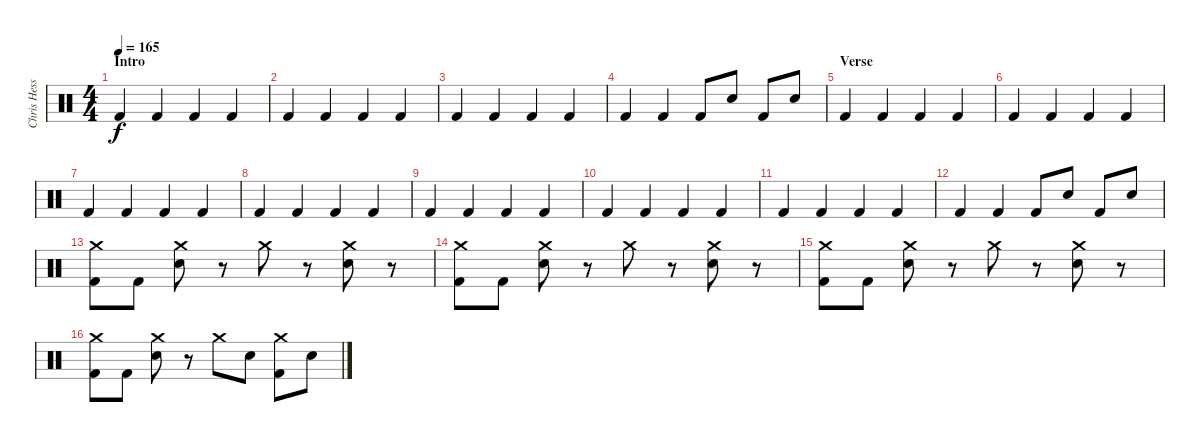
\track ("Chris Hesse" "Chris Hess") {instrument percussion}
\staff {score}
\articulation defaults
\ts (4 4)
\section ("" "Intro")
\tempo 165
\clef neutral
\ks c "Kick (hit) 2".4{dy f} "Kick (hit) 2".4 "Kick (hit) 2".4 "Kick (hit) 2".4
|
"Kick (hit) 2".4 "Kick (hit) 2".4 "Kick (hit) 2".4 "Kick (hit) 2".4 |
"Kick (hit) 2".4 "Kick (hit) 2".4 "Kick (hit) 2".4 "Kick (hit) 2".4 |
"Kick (hit) 2".4 "Kick (hit) 2".4 "Kick (hit) 2".8 "Snare (hit) 2".8 "Kick (hit) 2".8 "Snare (hit) 2".8 |
\section ("" "Verse")
"Kick (hit) 2".4 "Kick (hit) 2".4 "Kick (hit) 2".4 "Kick (hit) 2".4 |
"Kick (hit) 2".4 "Kick (hit) 2".4 "Kick (hit) 2".4 "Kick (hit) 2".4 |
"Kick (hit) 2".4 "Kick (hit) 2".4 "Kick (hit) 2".4 "Kick (hit) 2".4 |
"Kick (hit) 2".4 "Kick (hit) 2".4 "Kick (hit) 2".4 "Kick (hit) 2".4 |
"Kick (hit) 2".4 "Kick (hit) 2".4 "Kick (hit) 2".4 "Kick (hit) 2".4 |
"Kick (hit) 2".4 "Kick (hit) 2".4 "Kick (hit) 2".4 "Kick (hit) 2".4 |
"Kick (hit) 2".4 "Kick (hit) 2".4 "Kick (hit) 2".4 "Kick (hit) 2".4 |
"Kick (hit) 2".4 "Kick (hit) 2".4 "Kick (hit) 2".8 "Snare (hit) 2".8 "Kick (hit) 2".8 "Snare (hit) 2".8 |
("Crash medium (hit)" "Kick (hit) 2").8 "Kick (hit) 2".8 ("Crash medium (hit)" "Snare (hit) 2").8 r.8 "Crash medium (hit)".8 r.8 ("Crash medium (hit)" "Snare (hit) 2").8 r.8 |
("Crash medium (hit)" "Kick (hit) 2").8 "Kick (hit) 2".8 ("Crash medium (hit)" "Snare (hit) 2").8 r.8 "Crash medium (hit)".8 r.8 ("Crash medium (hit)" "Snare (hit) 2").8 r.8 |
("Crash medium (hit)" "Kick (hit) 2").8 "Kick (hit) 2".8 ("Crash medium (hit)" "Snare (hit) 2").8 r.8 "Crash medium (hit)".8 r.8 ("Crash medium (hit)" "Snare (hit) 2").8 r.8 |
("Crash medium (hit)" "Kick (hit) 2").8 "Kick (hit) 2".8 ("Crash medium (hit)" "Snare (hit) 2").8 r.8 "Crash medium (hit)".8 "Snare (hit) 2".8 ("Crash medium (hit)" "Kick (hit) 2").8 "Snare (hit) 2".8
